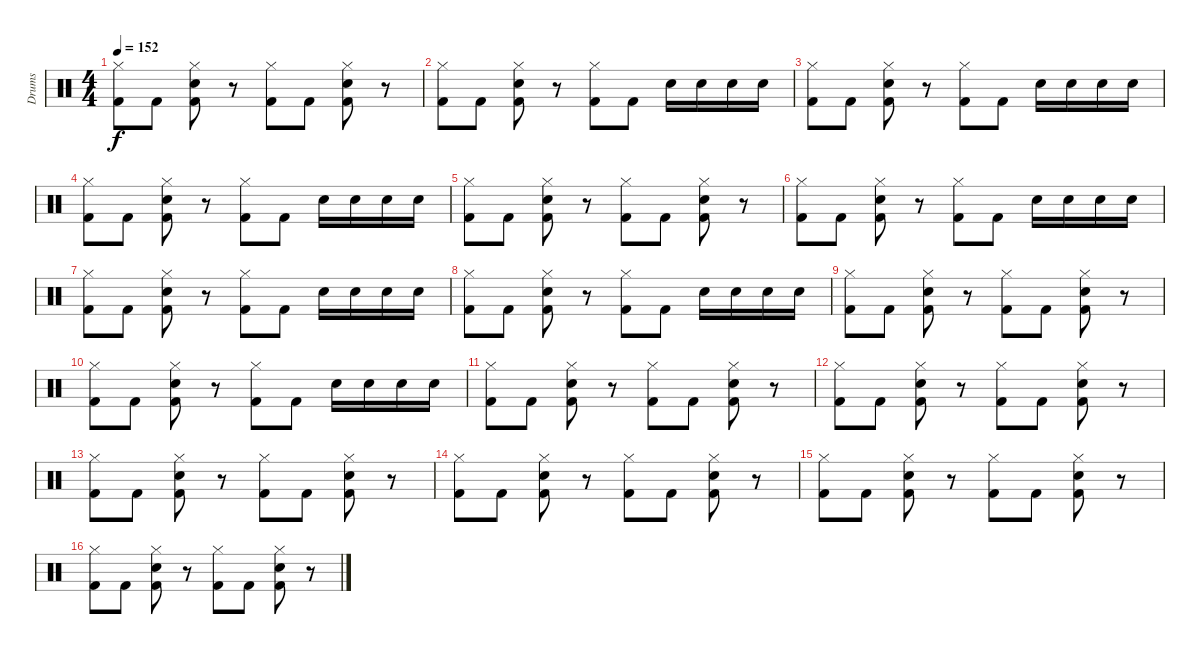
\track ("Drums" "Drums") {instrument percussion}
\staff {score}
\articulation defaults
\ts (4 4)
\tempo 152
\clef neutral
\ks c
("Hi-Hat (closed)" "Kick (hit) 2").8{dy f} "Kick (hit) 2".8 ("Hi-Hat (closed)" "Electric Snare (hit)" "Kick (hit) 2").8 r.8 ("Hi-Hat (closed)" "Kick (hit) 2").8 "Kick (hit) 2".8 ("Hi-Hat (closed)" "Electric Snare (hit)" "Kick (hit) 2").8 r.8 |
("Hi-Hat (closed)" "Kick (hit) 2").8 "Kick (hit) 2".8 ("Hi-Hat (closed)" "Electric Snare (hit)" "Kick (hit) 2").8 r.8 ("Hi-Hat (closed)" "Kick (hit) 2").8 "Kick (hit) 2".8 "Snare (hit) 2".16 "Snare (hit) 2".16 "Snare (hit) 2".16 "Snare (hit) 2".16 |
("Hi-Hat (closed)" "Kick (hit) 2").8 "Kick (hit) 2".8 ("Hi-Hat (closed)" "Electric Snare (hit)" "Kick (hit) 2").8 r.8 ("Hi-Hat (closed)" "Kick (hit) 2").8 "Kick (hit) 2".8 "Snare (hit) 2".16 "Snare (hit) 2".16 "Snare (hit) 2".16 "Snare (hit) 2".16 |
("Hi-Hat (closed)" "Kick (hit) 2").8 "Kick (hit) 2".8 ("Hi-Hat (closed)" "Electric Snare (hit)" "Kick (hit) 2").8 r.8 ("Hi-Hat (closed)" "Kick (hit) 2").8 "Kick (hit) 2".8 "Snare (hit) 2".16 "Snare (hit) 2".16 "Snare (hit) 2".16 "Snare (hit) 2".16 |
("Hi-Hat (closed)" "Kick (hit) 2").8 "Kick (hit) 2".8 ("Hi-Hat (closed)" "Electric Snare (hit)" "Kick (hit) 2").8 r.8 ("Hi-Hat (closed)" "Kick (hit) 2").8 "Kick (hit) 2".8 ("Hi-Hat (closed)" "Electric Snare (hit)" "Kick (hit) 2").8 r.8 |
("Hi-Hat (closed)" "Kick (hit) 2").8 "Kick (hit) 2".8 ("Hi-Hat (closed)" "Electric Snare (hit)" "Kick (hit) 2").8 r.8 ("Hi-Hat (closed)" "Kick (hit) 2").8 "Kick (hit) 2".8 "Snare (hit) 2".16 "Snare (hit) 2".16 "Snare (hit) 2".16 "Snare (hit) 2".16 |
("Hi-Hat (closed)" "Kick (hit) 2").8 "Kick (hit) 2".8 ("Hi-Hat (closed)" "Electric Snare (hit)" "Kick (hit) 2").8 r.8 ("Hi-Hat (closed)" "Kick (hit) 2").8 "Kick (hit) 2".8 "Snare (hit) 2".16 "Snare (hit) 2".16 "Snare (hit) 2".16 "Snare (hit) 2".16 |
("Hi-Hat (closed)" "Kick (hit) 2").8 "Kick (hit) 2".8 ("Hi-Hat (closed)" "Electric Snare (hit)" "Kick (hit) 2").8 r.8 ("Hi-Hat (closed)" "Kick (hit) 2").8 "Kick (hit) 2".8 "Snare (hit) 2".16 "Snare (hit) 2".16 "Snare (hit) 2".16 "Snare (hit) 2".16 |
("Hi-Hat (closed)" "Kick (hit) 2").8 "Kick (hit) 2".8 ("Hi-Hat (closed)" "Electric Snare (hit)" "Kick (hit) 2").8 r.8 ("Hi-Hat (closed)" "Kick (hit) 2").8 "Kick (hit) 2".8 ("Hi-Hat (closed)" "Electric Snare (hit)" "Kick (hit) 2").8 r.8 |
("Hi-Hat (closed)" "Kick (hit) 2").8 "Kick (hit) 2".8 ("Hi-Hat (closed)" "Electric Snare (hit)" "Kick (hit) 2").8 r.8 ("Hi-Hat (closed)" "Kick (hit) 2").8 "Kick (hit) 2".8 "Snare (hit) 2".16 "Snare (hit) 2".16 "Snare (hit) 2".16 "Snare (hit) 2".16 |
("Hi-Hat (closed)" "Kick (hit) 2").8 "Kick (hit) 2".8 ("Hi-Hat (closed)" "Electric Snare (hit)" "Kick (hit) 2").8 r.8 ("Hi-Hat (closed)" "Kick (hit) 2").8 "Kick (hit) 2".8 ("Hi-Hat (closed)" "Electric Snare (hit)" "Kick (hit) 2").8 r.8 |
("Hi-Hat (closed)" "Kick (hit) 2").8 "Kick (hit) 2".8 ("Hi-Hat (closed)" "Electric Snare (hit)" "Kick (hit) 2").8 r.8 ("Hi-Hat (closed)" "Kick (hit) 2").8 "Kick (hit) 2".8 ("Hi-Hat (closed)" "Electric Snare (hit)" "Kick (hit) 2").8 r.8 |
("Hi-Hat (closed)" "Kick (hit) 2").8 "Kick (hit) 2".8 ("Hi-Hat (closed)" "Electric Snare (hit)" "Kick (hit) 2").8 r.8 ("Hi-Hat (closed)" "Kick (hit) 2").8 "Kick (hit) 2".8 ("Hi-Hat (closed)" "Electric Snare (hit)" "Kick (hit) 2").8 r.8 |
("Hi-Hat (closed)" "Kick (hit) 2").8 "Kick (hit) 2".8 ("Hi-Hat (closed)" "Electric Snare (hit)" "Kick (hit) 2").8 r.8 ("Hi-Hat (closed)" "Kick (hit) 2").8 "Kick (hit) 2".8 ("Hi-Hat (closed)" "Electric Snare (hit)" "Kick (hit) 2").8 r.8 |
("Hi-Hat (closed)" "Kick (hit) 2").8 "Kick (hit) 2".8 ("Hi-Hat (closed)" "Electric Snare (hit)" "Kick (hit) 2").8 r.8 ("Hi-Hat (closed)" "Kick (hit) 2").8 "Kick (hit) 2".8 ("Hi-Hat (closed)" "Electric Snare (hit)" "Kick (hit) 2").8 r.8 |
("Hi-Hat (closed)" "Kick (hit) 2").8 "Kick (hit) 2".8 ("Hi-Hat (closed)" "Electric Snare (hit)" "Kick (hit) 2").8 r.8 ("Hi-Hat (closed)" "Kick (hit) 2").8 "Kick (hit) 2".8 ("Hi-Hat (closed)" "Electric Snare (hit)" "Kick (hit) 2").8 r.8
